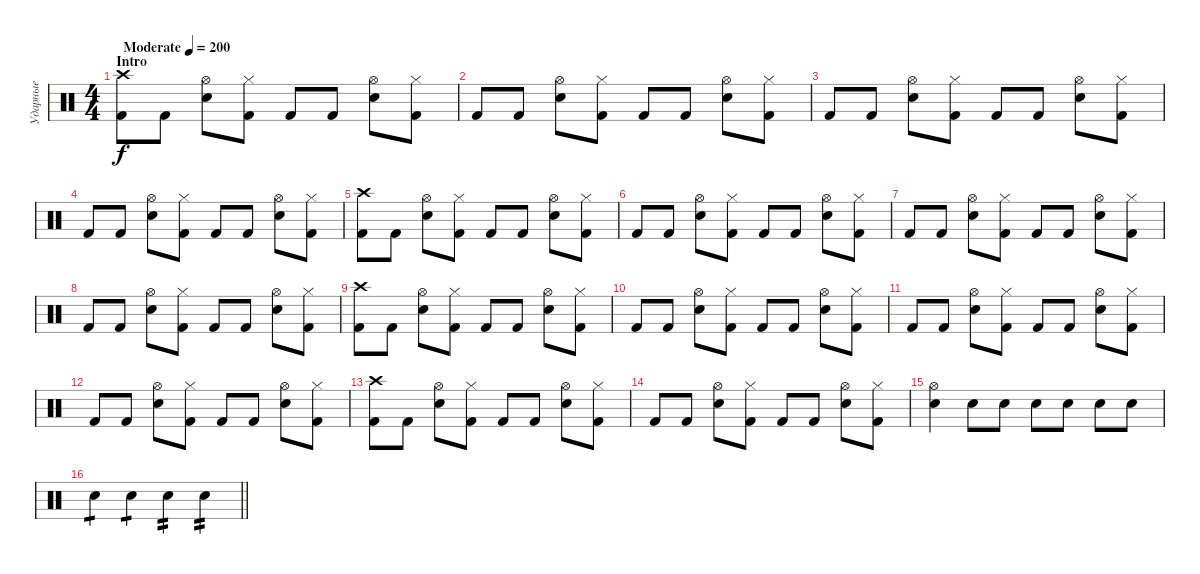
\track ("Ударные" "Ударные") {instrument percussion}
\staff {score}
\articulation defaults
\ts (4 4)
\section ("" "Intro")
\tempo (200 "Moderate")
\clef neutral
\ks c
("Kick (hit) 2" "Crash high (hit)").8{dy f} "Kick (hit) 2".8 ("Snare (hit) 2" "Hi-Hat (open)").8 ("Kick (hit) 2" "Hi-Hat (closed)").8 "Kick (hit) 2".8 "Kick (hit) 2".8 ("Snare (hit) 2" "Hi-Hat (open)").8 ("Kick (hit) 2" "Hi-Hat (closed)").8 |
"Kick (hit) 2".8 "Kick (hit) 2".8 ("Snare (hit) 2" "Hi-Hat (open)").8 ("Kick (hit) 2" "Hi-Hat (closed)").8 "Kick (hit) 2".8 "Kick (hit) 2".8 ("Snare (hit) 2" "Hi-Hat (open)").8 ("Kick (hit) 2" "Hi-Hat (closed)").8 |
"Kick (hit) 2".8 "Kick (hit) 2".8 ("Snare (hit) 2" "Hi-Hat (open)").8 ("Kick (hit) 2" "Hi-Hat (closed)").8 "Kick (hit) 2".8 "Kick (hit) 2".8 ("Snare (hit) 2" "Hi-Hat (open)").8 ("Kick (hit) 2" "Hi-Hat (closed)").8 |
"Kick (hit) 2".8 "Kick (hit) 2".8 ("Snare (hit) 2" "Hi-Hat (open)").8 ("Kick (hit) 2" "Hi-Hat (closed)").8 "Kick (hit) 2".8 "Kick (hit) 2".8 ("Snare (hit) 2" "Hi-Hat (open)").8 ("Kick (hit) 2" "Hi-Hat (closed)").8 |
("Kick (hit) 2" "Crash high (hit)").8 "Kick (hit) 2".8 ("Snare (hit) 2" "Hi-Hat (open)").8 ("Kick (hit) 2" "Hi-Hat (closed)").8 "Kick (hit) 2".8 "Kick (hit) 2".8 ("Snare (hit) 2" "Hi-Hat (open)").8 ("Kick (hit) 2" "Hi-Hat (closed)").8 |
"Kick (hit) 2".8 "Kick (hit) 2".8 ("Snare (hit) 2" "Hi-Hat (open)").8 ("Kick (hit) 2" "Hi-Hat (closed)").8 "Kick (hit) 2".8 "Kick (hit) 2".8 ("Snare (hit) 2" "Hi-Hat (open)").8 ("Kick (hit) 2" "Hi-Hat (closed)").8 |
"Kick (hit) 2".8 "Kick (hit) 2".8 ("Snare (hit) 2" "Hi-Hat (open)").8 ("Kick (hit) 2" "Hi-Hat (closed)").8 "Kick (hit) 2".8 "Kick (hit) 2".8 ("Snare (hit) 2" "Hi-Hat (open)").8 ("Kick (hit) 2" "Hi-Hat (closed)").8 |
"Kick (hit) 2".8 "Kick (hit) 2".8 ("Snare (hit) 2" "Hi-Hat (open)").8 ("Kick (hit) 2" "Hi-Hat (closed)").8 "Kick (hit) 2".8 "Kick (hit) 2".8 ("Snare (hit) 2" "Hi-Hat (open)").8 ("Kick (hit) 2" "Hi-Hat (closed)").8 |
("Kick (hit) 2" "Crash high (hit)").8 "Kick (hit) 2".8 ("Snare (hit) 2" "Hi-Hat (open)").8 ("Kick (hit) 2" "Hi-Hat (closed)").8 "Kick (hit) 2".8 "Kick (hit) 2".8 ("Snare (hit) 2" "Hi-Hat (open)").8 ("Kick (hit) 2" "Hi-Hat (closed)").8 |
"Kick (hit) 2".8 "Kick (hit) 2".8 ("Snare (hit) 2" "Hi-Hat (open)").8 ("Kick (hit) 2" "Hi-Hat (closed)").8 "Kick (hit) 2".8 "Kick (hit) 2".8 ("Snare (hit) 2" "Hi-Hat (open)").8 ("Kick (hit) 2" "Hi-Hat (closed)").8 |
"Kick (hit) 2".8 "Kick (hit) 2".8 ("Snare (hit) 2" "Hi-Hat (open)").8 ("Kick (hit) 2" "Hi-Hat (closed)").8 "Kick (hit) 2".8 "Kick (hit) 2".8 ("Snare (hit) 2" "Hi-Hat (open)").8 ("Kick (hit) 2" "Hi-Hat (closed)").8 |
"Kick (hit) 2".8 "Kick (hit) 2".8 ("Snare (hit) 2" "Hi-Hat (open)").8 ("Kick (hit) 2" "Hi-Hat (closed)").8 "Kick (hit) 2".8 "Kick (hit) 2".8 ("Snare (hit) 2" "Hi-Hat (open)").8 ("Kick (hit) 2" "Hi-Hat (closed)").8 |
("Kick (hit) 2" "Crash high (hit)").8 "Kick (hit) 2".8 ("Snare (hit) 2" "Hi-Hat (open)").8 ("Kick (hit) 2" "Hi-Hat (closed)").8 "Kick (hit) 2".8 "Kick (hit) 2".8 ("Snare (hit) 2" "Hi-Hat (open)").8 ("Kick (hit) 2" "Hi-Hat (closed)").8 |
"Kick (hit) 2".8 "Kick (hit) 2".8 ("Snare (hit) 2" "Hi-Hat (open)").8 ("Kick (hit) 2" "Hi-Hat (closed)").8 "Kick (hit) 2".8 "Kick (hit) 2".8 ("Snare (hit) 2" "Hi-Hat (open)").8 ("Kick (hit) 2" "Hi-Hat (closed)").8 |
("Snare (hit) 2" "Hi-Hat (open)").4 "Snare (hit) 2".8 "Snare (hit) 2".8 "Snare (hit) 2".8 "Snare (hit) 2".8 "Snare (hit) 2".8 "Snare (hit) 2".8 |
\barLineRight lightlight "Snare (hit) 2".4{tp 1} "Snare (hit) 2".4{tp 1} "Snare (hit) 2".4{tp 2} "Snare (hit) 2".4{tp 2}
